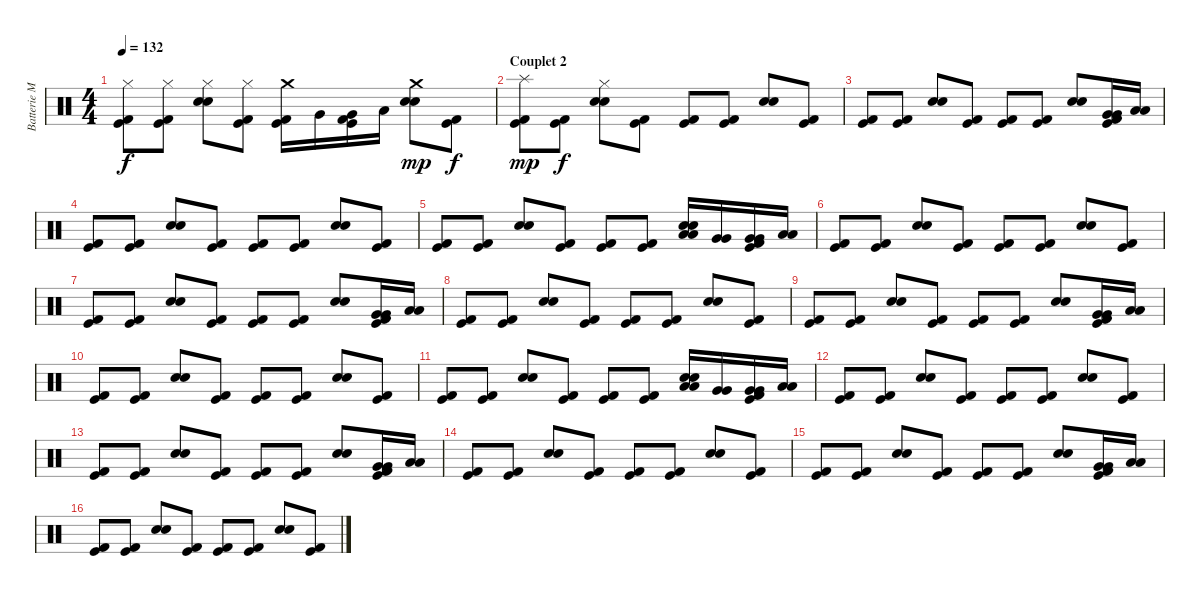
\track ("Batterie Mat" "Batterie M") {instrument percussion}
\staff {score}
\articulation defaults
\ts (4 4)
\tempo 132
\clef neutral
\ks c
("Hi-Hat (closed)" "Kick (hit) 2" "Kick (hit)").8{dy f} ("Hi-Hat (closed)" "Kick (hit) 2" "Kick (hit)").8 ("Hi-Hat (closed)" "Electric Snare (hit)" "Electric Snare (hit)").8 ("Hi-Hat (closed)" "Kick (hit) 2" "Kick (hit)").8 ("Crash medium (hit)" "Kick (hit) 2" "Kick (hit)").16 "Very Low Tom (hit)".16 ("Very Low Tom (hit)" "Kick (hit) 2" "Kick (hit)").16 "Low Floor Tom (hit)".16 ("Crash medium (hit)" "Electric Snare (hit)" "Electric Snare (hit)").8{dy mp} ("Kick (hit) 2" "Kick (hit)").8{dy f} |
\section ("" "Couplet 2")
("Splash (hit)" "Kick (hit) 2" "Kick (hit)").8{dy mp} ("Kick (hit) 2" "Kick (hit)").8{dy f} ("Hi-Hat (closed)" "Electric Snare (hit)" "Electric Snare (hit)").8 ("Kick (hit) 2" "Kick (hit)").8 ("Kick (hit) 2" "Kick (hit)").8 ("Kick (hit) 2" "Kick (hit)").8 ("Electric Snare (hit)" "Electric Snare (hit)").8 ("Kick (hit) 2" "Kick (hit)").8 |
("Kick (hit) 2" "Kick (hit)").8 ("Kick (hit) 2" "Kick (hit)").8 ("Electric Snare (hit)" "Electric Snare (hit)").8 ("Kick (hit) 2" "Kick (hit)").8 ("Kick (hit) 2" "Kick (hit)").8 ("Kick (hit) 2" "Kick (hit)").8 ("Electric Snare (hit)" "Electric Snare (hit)").8 ("Very Low Tom (hit)" "Very Low Tom (hit)" "Kick (hit) 2" "Kick (hit)").16 ("Low Floor Tom (hit)" "Low Floor Tom (hit)").16 |
("Kick (hit) 2" "Kick (hit)").8 ("Kick (hit) 2" "Kick (hit)").8 ("Electric Snare (hit)" "Electric Snare (hit)").8 ("Kick (hit) 2" "Kick (hit)").8 ("Kick (hit) 2" "Kick (hit)").8 ("Kick (hit) 2" "Kick (hit)").8 ("Electric Snare (hit)" "Electric Snare (hit)").8 ("Kick (hit) 2" "Kick (hit)").8 |
("Kick (hit) 2" "Kick (hit)").8 ("Kick (hit) 2" "Kick (hit)").8 ("Electric Snare (hit)" "Electric Snare (hit)").8 ("Kick (hit) 2" "Kick (hit)").8 ("Kick (hit) 2" "Kick (hit)").8 ("Kick (hit) 2" "Kick (hit)").8 ("Electric Snare (hit)" "Electric Snare (hit)" "Low Tom (hit)" "Low Tom (hit)").16 ("Very Low Tom (hit)" "Very Low Tom (hit)").16 ("Very Low Tom (hit)" "Very Low Tom (hit)" "Kick (hit) 2" "Kick (hit)").16 ("Low Floor Tom (hit)" "Low Floor Tom (hit)").16 |
("Kick (hit) 2" "Kick (hit)").8 ("Kick (hit) 2" "Kick (hit)").8 ("Electric Snare (hit)" "Electric Snare (hit)").8 ("Kick (hit) 2" "Kick (hit)").8 ("Kick (hit) 2" "Kick (hit)").8 ("Kick (hit) 2" "Kick (hit)").8 ("Electric Snare (hit)" "Electric Snare (hit)").8 ("Kick (hit) 2" "Kick (hit)").8 |
("Kick (hit) 2" "Kick (hit)").8 ("Kick (hit) 2" "Kick (hit)").8 ("Electric Snare (hit)" "Electric Snare (hit)").8 ("Kick (hit) 2" "Kick (hit)").8 ("Kick (hit) 2" "Kick (hit)").8 ("Kick (hit) 2" "Kick (hit)").8 ("Electric Snare (hit)" "Electric Snare (hit)").8 ("Very Low Tom (hit)" "Very Low Tom (hit)" "Kick (hit) 2" "Kick (hit)").16 ("Low Floor Tom (hit)" "Low Floor Tom (hit)").16 |
("Kick (hit) 2" "Kick (hit)").8 ("Kick (hit) 2" "Kick (hit)").8 ("Electric Snare (hit)" "Electric Snare (hit)").8 ("Kick (hit) 2" "Kick (hit)").8 ("Kick (hit) 2" "Kick (hit)").8 ("Kick (hit) 2" "Kick (hit)").8 ("Electric Snare (hit)" "Electric Snare (hit)").8 ("Kick (hit) 2" "Kick (hit)").8 |
("Kick (hit) 2" "Kick (hit)").8 ("Kick (hit) 2" "Kick (hit)").8 ("Electric Snare (hit)" "Electric Snare (hit)").8 ("Kick (hit) 2" "Kick (hit)").8 ("Kick (hit) 2" "Kick (hit)").8 ("Kick (hit) 2" "Kick (hit)").8 ("Electric Snare (hit)" "Electric Snare (hit)").8 ("Very Low Tom (hit)" "Very Low Tom (hit)" "Kick (hit) 2" "Kick (hit)").16 ("Low Floor Tom (hit)" "Low Floor Tom (hit)").16 |
("Kick (hit) 2" "Kick (hit)").8 ("Kick (hit) 2" "Kick (hit)").8 ("Electric Snare (hit)" "Electric Snare (hit)").8 ("Kick (hit) 2" "Kick (hit)").8 ("Kick (hit) 2" "Kick (hit)").8 ("Kick (hit) 2" "Kick (hit)").8 ("Electric Snare (hit)" "Electric Snare (hit)").8 ("Kick (hit) 2" "Kick (hit)").8 |
("Kick (hit) 2" "Kick (hit)").8 ("Kick (hit) 2" "Kick (hit)").8 ("Electric Snare (hit)" "Electric Snare (hit)").8 ("Kick (hit) 2" "Kick (hit)").8 ("Kick (hit) 2" "Kick (hit)").8 ("Kick (hit) 2" "Kick (hit)").8 ("Electric Snare (hit)" "Electric Snare (hit)" "Low Tom (hit)" "Low Tom (hit)").16 ("Very Low Tom (hit)" "Very Low Tom (hit)").16 ("Very Low Tom (hit)" "Very Low Tom (hit)" "Kick (hit) 2" "Kick (hit)").16 ("Low Floor Tom (hit)" "Low Floor Tom (hit)").16 |
("Kick (hit) 2" "Kick (hit)").8 ("Kick (hit) 2" "Kick (hit)").8 ("Electric Snare (hit)" "Electric Snare (hit)").8 ("Kick (hit) 2" "Kick (hit)").8 ("Kick (hit) 2" "Kick (hit)").8 ("Kick (hit) 2" "Kick (hit)").8 ("Electric Snare (hit)" "Electric Snare (hit)").8 ("Kick (hit) 2" "Kick (hit)").8 |
("Kick (hit) 2" "Kick (hit)").8 ("Kick (hit) 2" "Kick (hit)").8 ("Electric Snare (hit)" "Electric Snare (hit)").8 ("Kick (hit) 2" "Kick (hit)").8 ("Kick (hit) 2" "Kick (hit)").8 ("Kick (hit) 2" "Kick (hit)").8 ("Electric Snare (hit)" "Electric Snare (hit)").8 ("Very Low Tom (hit)" "Very Low Tom (hit)" "Kick (hit) 2" "Kick (hit)").16 ("Low Floor Tom (hit)" "Low Floor Tom (hit)").16 |
("Kick (hit) 2" "Kick (hit)").8 ("Kick (hit) 2" "Kick (hit)").8 ("Electric Snare (hit)" "Electric Snare (hit)").8 ("Kick (hit) 2" "Kick (hit)").8 ("Kick (hit) 2" "Kick (hit)").8 ("Kick (hit) 2" "Kick (hit)").8 ("Electric Snare (hit)" "Electric Snare (hit)").8 ("Kick (hit) 2" "Kick (hit)").8 |
("Kick (hit) 2" "Kick (hit)").8 ("Kick (hit) 2" "Kick (hit)").8 ("Electric Snare (hit)" "Electric Snare (hit)").8 ("Kick (hit) 2" "Kick (hit)").8 ("Kick (hit) 2" "Kick (hit)").8 ("Kick (hit) 2" "Kick (hit)").8 ("Electric Snare (hit)" "Electric Snare (hit)").8 ("Very Low Tom (hit)" "Very Low Tom (hit)" "Kick (hit) 2" "Kick (hit)").16 ("Low Floor Tom (hit)" "Low Floor Tom (hit)").16 |
("Kick (hit) 2" "Kick (hit)").8 ("Kick (hit) 2" "Kick (hit)").8 ("Electric Snare (hit)" "Electric Snare (hit)").8 ("Kick (hit) 2" "Kick (hit)").8 ("Kick (hit) 2" "Kick (hit)").8 ("Kick (hit) 2" "Kick (hit)").8 ("Electric Snare (hit)" "Electric Snare (hit)").8 ("Kick (hit) 2" "Kick (hit)").8
